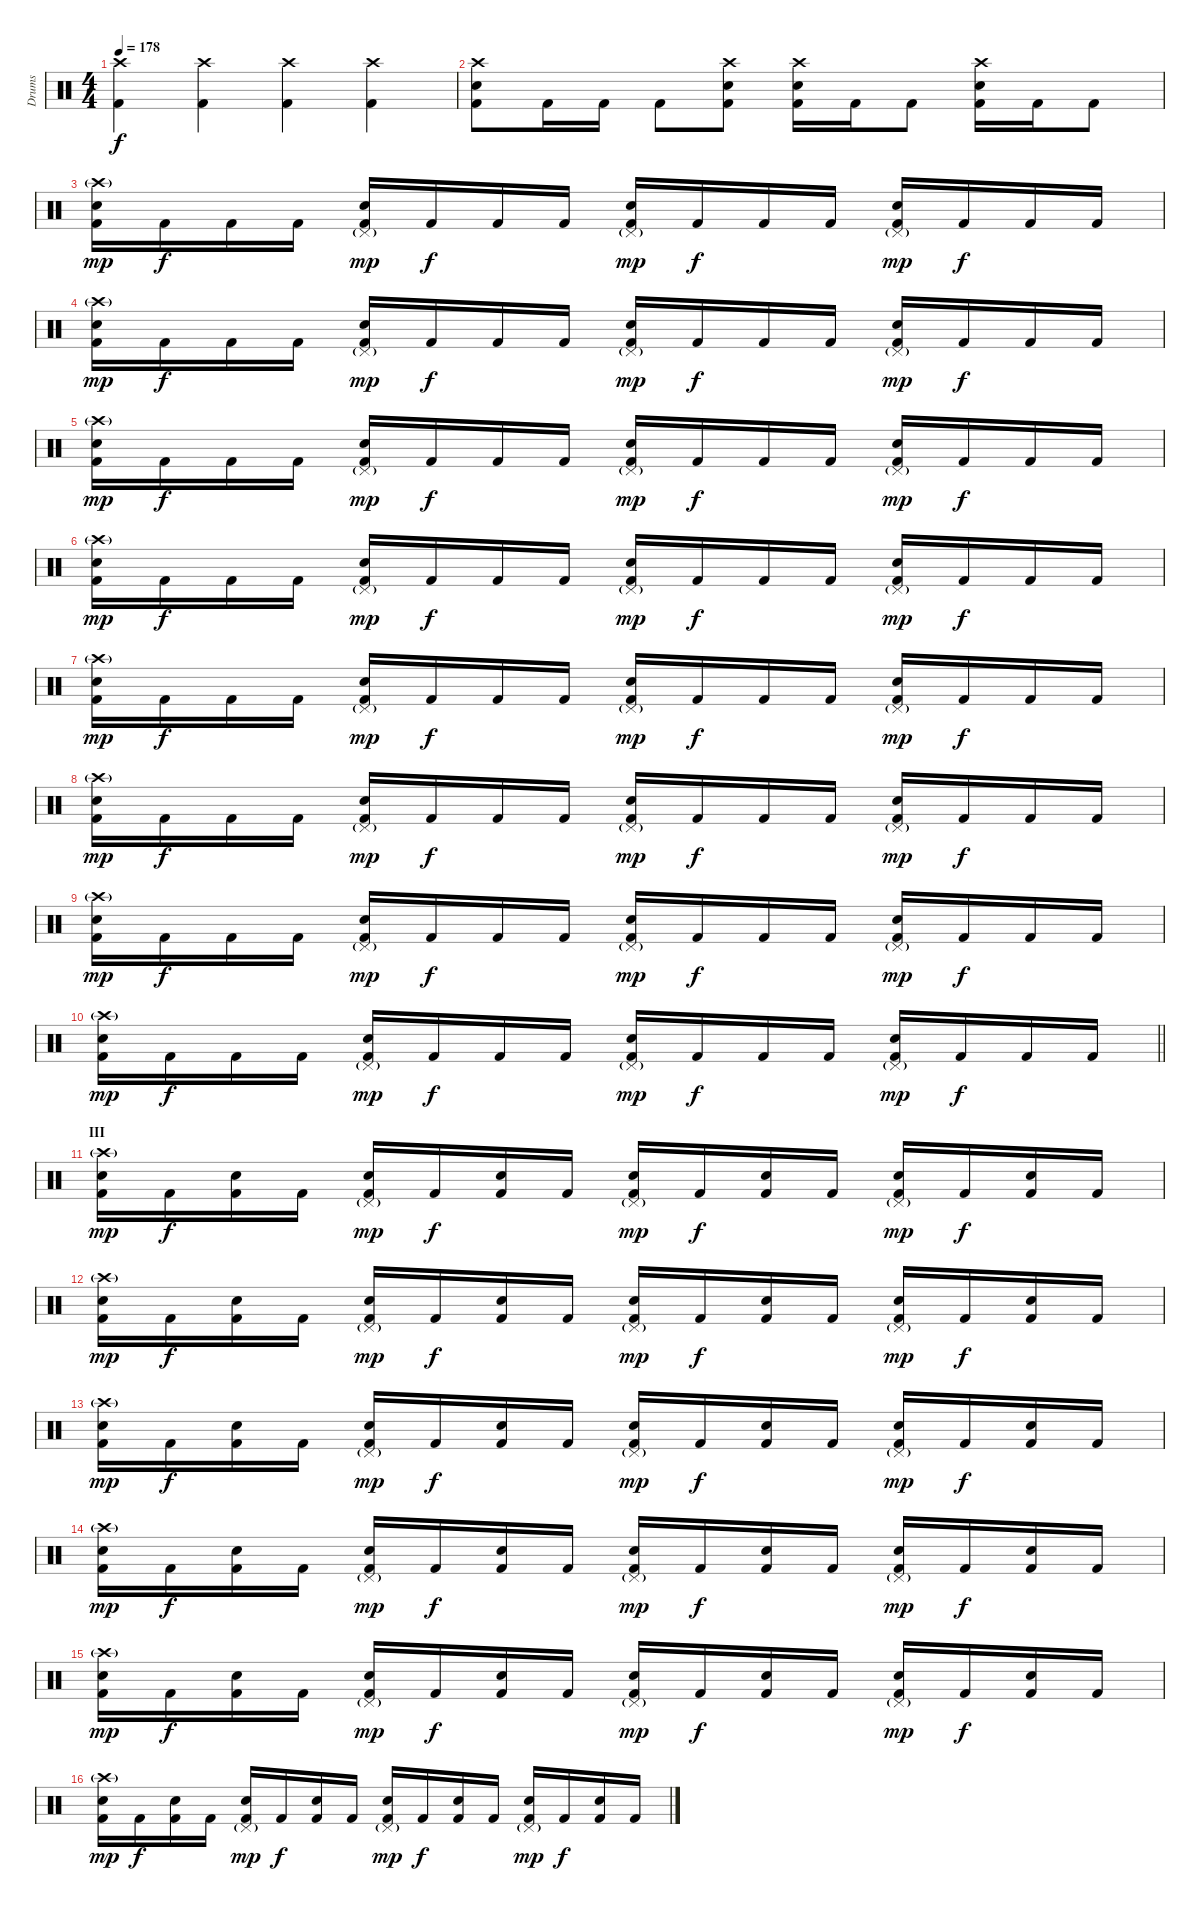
\track ("Drums" "Drums") {instrument percussion}
\staff {score}
\articulation defaults
\ts (4 4)
\tempo 178
\clef neutral
\ks c
("Crash high (hit)" "Kick (hit) 2").4{dy f} ("Crash high (hit)" "Kick (hit) 2").4 ("Crash high (hit)" "Kick (hit) 2").4 ("Crash high (hit)" "Kick (hit) 2").4 |
("Crash high (hit)" "Electric Snare (hit)" "Kick (hit) 2").8 "Kick (hit) 2".16 "Kick (hit) 2".16 "Kick (hit) 2".8 ("Crash high (hit)" "Electric Snare (hit)" "Kick (hit) 2").8 ("Crash high (hit)" "Electric Snare (hit)" "Kick (hit) 2").16 "Kick (hit) 2".16 "Kick (hit) 2".8 ("Crash high (hit)" "Electric Snare (hit)" "Kick (hit) 2").16 "Kick (hit) 2".16 "Kick (hit) 2".8 |
("Crash high (hit)"{g} "Electric Snare (hit)" "Kick (hit) 2").16{dy mp} "Kick (hit) 2".16{dy f} "Kick (hit) 2".16 "Kick (hit) 2".16 ("Pedal Hi-Hat (hit)"{g} "Electric Snare (hit)" "Kick (hit) 2").16{dy mp} "Kick (hit) 2".16{dy f} "Kick (hit) 2".16 "Kick (hit) 2".16 ("Pedal Hi-Hat (hit)"{g} "Electric Snare (hit)" "Kick (hit) 2").16{dy mp} "Kick (hit) 2".16{dy f} "Kick (hit) 2".16 "Kick (hit) 2".16 ("Pedal Hi-Hat (hit)"{g} "Electric Snare (hit)" "Kick (hit) 2").16{dy mp} "Kick (hit) 2".16{dy f} "Kick (hit) 2".16 "Kick (hit) 2".16 |
("Crash high (hit)"{g} "Electric Snare (hit)" "Kick (hit) 2").16{dy mp} "Kick (hit) 2".16{dy f} "Kick (hit) 2".16 "Kick (hit) 2".16 ("Pedal Hi-Hat (hit)"{g} "Electric Snare (hit)" "Kick (hit) 2").16{dy mp} "Kick (hit) 2".16{dy f} "Kick (hit) 2".16 "Kick (hit) 2".16 ("Pedal Hi-Hat (hit)"{g} "Electric Snare (hit)" "Kick (hit) 2").16{dy mp} "Kick (hit) 2".16{dy f} "Kick (hit) 2".16 "Kick (hit) 2".16 ("Pedal Hi-Hat (hit)"{g} "Electric Snare (hit)" "Kick (hit) 2").16{dy mp} "Kick (hit) 2".16{dy f} "Kick (hit) 2".16 "Kick (hit) 2".16 |
("Crash high (hit)"{g} "Electric Snare (hit)" "Kick (hit) 2").16{dy mp} "Kick (hit) 2".16{dy f} "Kick (hit) 2".16 "Kick (hit) 2".16 ("Pedal Hi-Hat (hit)"{g} "Electric Snare (hit)" "Kick (hit) 2").16{dy mp} "Kick (hit) 2".16{dy f} "Kick (hit) 2".16 "Kick (hit) 2".16 ("Pedal Hi-Hat (hit)"{g} "Electric Snare (hit)" "Kick (hit) 2").16{dy mp} "Kick (hit) 2".16{dy f} "Kick (hit) 2".16 "Kick (hit) 2".16 ("Pedal Hi-Hat (hit)"{g} "Electric Snare (hit)" "Kick (hit) 2").16{dy mp} "Kick (hit) 2".16{dy f} "Kick (hit) 2".16 "Kick (hit) 2".16 |
("Crash high (hit)"{g} "Electric Snare (hit)" "Kick (hit) 2").16{dy mp} "Kick (hit) 2".16{dy f} "Kick (hit) 2".16 "Kick (hit) 2".16 ("Pedal Hi-Hat (hit)"{g} "Electric Snare (hit)" "Kick (hit) 2").16{dy mp} "Kick (hit) 2".16{dy f} "Kick (hit) 2".16 "Kick (hit) 2".16 ("Pedal Hi-Hat (hit)"{g} "Electric Snare (hit)" "Kick (hit) 2").16{dy mp} "Kick (hit) 2".16{dy f} "Kick (hit) 2".16 "Kick (hit) 2".16 ("Pedal Hi-Hat (hit)"{g} "Electric Snare (hit)" "Kick (hit) 2").16{dy mp} "Kick (hit) 2".16{dy f} "Kick (hit) 2".16 "Kick (hit) 2".16 |
("Crash high (hit)"{g} "Electric Snare (hit)" "Kick (hit) 2").16{dy mp} "Kick (hit) 2".16{dy f} "Kick (hit) 2".16 "Kick (hit) 2".16 ("Pedal Hi-Hat (hit)"{g} "Electric Snare (hit)" "Kick (hit) 2").16{dy mp} "Kick (hit) 2".16{dy f} "Kick (hit) 2".16 "Kick (hit) 2".16 ("Pedal Hi-Hat (hit)"{g} "Electric Snare (hit)" "Kick (hit) 2").16{dy mp} "Kick (hit) 2".16{dy f} "Kick (hit) 2".16 "Kick (hit) 2".16 ("Pedal Hi-Hat (hit)"{g} "Electric Snare (hit)" "Kick (hit) 2").16{dy mp} "Kick (hit) 2".16{dy f} "Kick (hit) 2".16 "Kick (hit) 2".16 |
("Crash high (hit)"{g} "Electric Snare (hit)" "Kick (hit) 2").16{dy mp} "Kick (hit) 2".16{dy f} "Kick (hit) 2".16 "Kick (hit) 2".16 ("Pedal Hi-Hat (hit)"{g} "Electric Snare (hit)" "Kick (hit) 2").16{dy mp} "Kick (hit) 2".16{dy f} "Kick (hit) 2".16 "Kick (hit) 2".16 ("Pedal Hi-Hat (hit)"{g} "Electric Snare (hit)" "Kick (hit) 2").16{dy mp} "Kick (hit) 2".16{dy f} "Kick (hit) 2".16 "Kick (hit) 2".16 ("Pedal Hi-Hat (hit)"{g} "Electric Snare (hit)" "Kick (hit) 2").16{dy mp} "Kick (hit) 2".16{dy f} "Kick (hit) 2".16 "Kick (hit) 2".16 |
("Crash high (hit)"{g} "Electric Snare (hit)" "Kick (hit) 2").16{dy mp} "Kick (hit) 2".16{dy f} "Kick (hit) 2".16 "Kick (hit) 2".16 ("Pedal Hi-Hat (hit)"{g} "Electric Snare (hit)" "Kick (hit) 2").16{dy mp} "Kick (hit) 2".16{dy f} "Kick (hit) 2".16 "Kick (hit) 2".16 ("Pedal Hi-Hat (hit)"{g} "Electric Snare (hit)" "Kick (hit) 2").16{dy mp} "Kick (hit) 2".16{dy f} "Kick (hit) 2".16 "Kick (hit) 2".16 ("Pedal Hi-Hat (hit)"{g} "Electric Snare (hit)" "Kick (hit) 2").16{dy mp} "Kick (hit) 2".16{dy f} "Kick (hit) 2".16 "Kick (hit) 2".16 |
\barLineRight lightlight
("Crash high (hit)"{g} "Electric Snare (hit)" "Kick (hit) 2").16{dy mp} "Kick (hit) 2".16{dy f} "Kick (hit) 2".16 "Kick (hit) 2".16 ("Pedal Hi-Hat (hit)"{g} "Electric Snare (hit)" "Kick (hit) 2").16{dy mp} "Kick (hit) 2".16{dy f} "Kick (hit) 2".16 "Kick (hit) 2".16 ("Pedal Hi-Hat (hit)"{g} "Electric Snare (hit)" "Kick (hit) 2").16{dy mp} "Kick (hit) 2".16{dy f} "Kick (hit) 2".16 "Kick (hit) 2".16 ("Pedal Hi-Hat (hit)"{g} "Electric Snare (hit)" "Kick (hit) 2").16{dy mp} "Kick (hit) 2".16{dy f} "Kick (hit) 2".16 "Kick (hit) 2".16 |
\section ("" "III")
("Crash high (hit)"{g} "Electric Snare (hit)" "Kick (hit) 2").16{dy mp} "Kick (hit) 2".16{dy f} ("Electric Snare (hit)" "Kick (hit) 2").16 "Kick (hit) 2".16 ("Pedal Hi-Hat (hit)"{g} "Electric Snare (hit)" "Kick (hit) 2").16{dy mp} "Kick (hit) 2".16{dy f} ("Electric Snare (hit)" "Kick (hit) 2").16 "Kick (hit) 2".16 ("Pedal Hi-Hat (hit)"{g} "Electric Snare (hit)" "Kick (hit) 2").16{dy mp} "Kick (hit) 2".16{dy f} ("Electric Snare (hit)" "Kick (hit) 2").16 "Kick (hit) 2".16 ("Pedal Hi-Hat (hit)"{g} "Electric Snare (hit)" "Kick (hit) 2").16{dy mp} "Kick (hit) 2".16{dy f} ("Electric Snare (hit)" "Kick (hit) 2").16 "Kick (hit) 2".16 |
("Crash high (hit)"{g} "Electric Snare (hit)" "Kick (hit) 2").16{dy mp} "Kick (hit) 2".16{dy f} ("Electric Snare (hit)" "Kick (hit) 2").16 "Kick (hit) 2".16 ("Pedal Hi-Hat (hit)"{g} "Electric Snare (hit)" "Kick (hit) 2").16{dy mp} "Kick (hit) 2".16{dy f} ("Electric Snare (hit)" "Kick (hit) 2").16 "Kick (hit) 2".16 ("Pedal Hi-Hat (hit)"{g} "Electric Snare (hit)" "Kick (hit) 2").16{dy mp} "Kick (hit) 2".16{dy f} ("Electric Snare (hit)" "Kick (hit) 2").16 "Kick (hit) 2".16 ("Pedal Hi-Hat (hit)"{g} "Electric Snare (hit)" "Kick (hit) 2").16{dy mp} "Kick (hit) 2".16{dy f} ("Electric Snare (hit)" "Kick (hit) 2").16 "Kick (hit) 2".16 |
("Crash high (hit)"{g} "Electric Snare (hit)" "Kick (hit) 2").16{dy mp} "Kick (hit) 2".16{dy f} ("Electric Snare (hit)" "Kick (hit) 2").16 "Kick (hit) 2".16 ("Pedal Hi-Hat (hit)"{g} "Electric Snare (hit)" "Kick (hit) 2").16{dy mp} "Kick (hit) 2".16{dy f} ("Electric Snare (hit)" "Kick (hit) 2").16 "Kick (hit) 2".16 ("Pedal Hi-Hat (hit)"{g} "Electric Snare (hit)" "Kick (hit) 2").16{dy mp} "Kick (hit) 2".16{dy f} ("Electric Snare (hit)" "Kick (hit) 2").16 "Kick (hit) 2".16 ("Pedal Hi-Hat (hit)"{g} "Electric Snare (hit)" "Kick (hit) 2").16{dy mp} "Kick (hit) 2".16{dy f} ("Electric Snare (hit)" "Kick (hit) 2").16 "Kick (hit) 2".16 |
("Crash high (hit)"{g} "Electric Snare (hit)" "Kick (hit) 2").16{dy mp} "Kick (hit) 2".16{dy f} ("Electric Snare (hit)" "Kick (hit) 2").16 "Kick (hit) 2".16 ("Pedal Hi-Hat (hit)"{g} "Electric Snare (hit)" "Kick (hit) 2").16{dy mp} "Kick (hit) 2".16{dy f} ("Electric Snare (hit)" "Kick (hit) 2").16 "Kick (hit) 2".16 ("Pedal Hi-Hat (hit)"{g} "Electric Snare (hit)" "Kick (hit) 2").16{dy mp} "Kick (hit) 2".16{dy f} ("Electric Snare (hit)" "Kick (hit) 2").16 "Kick (hit) 2".16 ("Pedal Hi-Hat (hit)"{g} "Electric Snare (hit)" "Kick (hit) 2").16{dy mp} "Kick (hit) 2".16{dy f} ("Electric Snare (hit)" "Kick (hit) 2").16 "Kick (hit) 2".16 |
("Crash high (hit)"{g} "Electric Snare (hit)" "Kick (hit) 2").16{dy mp} "Kick (hit) 2".16{dy f} ("Electric Snare (hit)" "Kick (hit) 2").16 "Kick (hit) 2".16 ("Pedal Hi-Hat (hit)"{g} "Electric Snare (hit)" "Kick (hit) 2").16{dy mp} "Kick (hit) 2".16{dy f} ("Electric Snare (hit)" "Kick (hit) 2").16 "Kick (hit) 2".16 ("Pedal Hi-Hat (hit)"{g} "Electric Snare (hit)" "Kick (hit) 2").16{dy mp} "Kick (hit) 2".16{dy f} ("Electric Snare (hit)" "Kick (hit) 2").16 "Kick (hit) 2".16 ("Pedal Hi-Hat (hit)"{g} "Electric Snare (hit)" "Kick (hit) 2").16{dy mp} "Kick (hit) 2".16{dy f} ("Electric Snare (hit)" "Kick (hit) 2").16 "Kick (hit) 2".16 |
("Crash high (hit)"{g} "Electric Snare (hit)" "Kick (hit) 2").16{dy mp} "Kick (hit) 2".16{dy f} ("Electric Snare (hit)" "Kick (hit) 2").16 "Kick (hit) 2".16 ("Pedal Hi-Hat (hit)"{g} "Electric Snare (hit)" "Kick (hit) 2").16{dy mp} "Kick (hit) 2".16{dy f} ("Electric Snare (hit)" "Kick (hit) 2").16 "Kick (hit) 2".16 ("Pedal Hi-Hat (hit)"{g} "Electric Snare (hit)" "Kick (hit) 2").16{dy mp} "Kick (hit) 2".16{dy f} ("Electric Snare (hit)" "Kick (hit) 2").16 "Kick (hit) 2".16 ("Pedal Hi-Hat (hit)"{g} "Electric Snare (hit)" "Kick (hit) 2").16{dy mp} "Kick (hit) 2".16{dy f} ("Electric Snare (hit)" "Kick (hit) 2").16 "Kick (hit) 2".16
